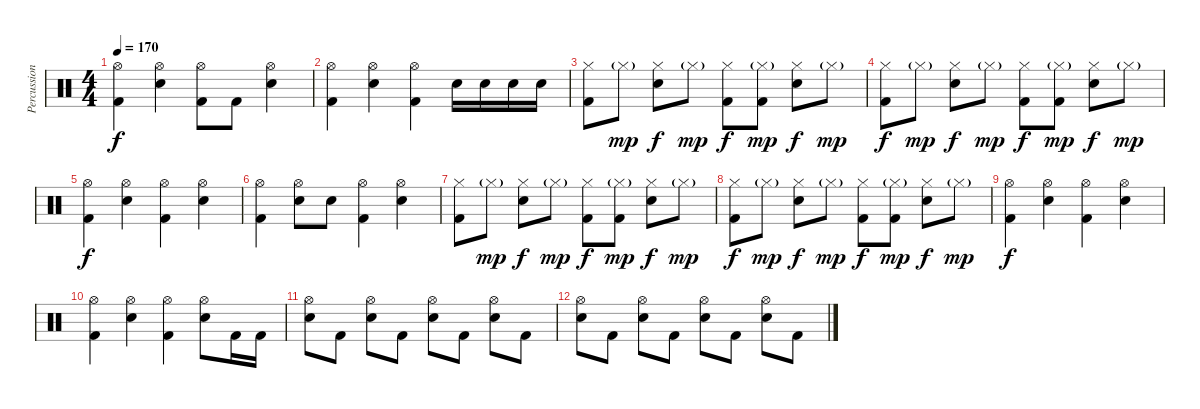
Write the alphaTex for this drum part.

\track ("Percussion" "Percussion") {instrument percussion}
\staff {score}
\articulation defaults
\ts (4 4)
\tempo 170
\clef neutral
\ks c
("Hi-Hat (open)" "Kick (hit) 2").4{dy f} ("Hi-Hat (open)" "Snare (hit) 2").4 ("Hi-Hat (open)" "Kick (hit) 2").8 "Kick (hit) 2".8 ("Hi-Hat (open)" "Snare (hit) 2").4 |
("Hi-Hat (open)" "Kick (hit) 2").4 ("Hi-Hat (open)" "Snare (hit) 2").4 ("Hi-Hat (open)" "Kick (hit) 2").4 "Snare (hit) 2".16 "Snare (hit) 2".16 "Snare (hit) 2".16 "Snare (hit) 2".16 |
("Hi-Hat (closed)" "Kick (hit) 2").8 "Hi-Hat (closed)"{g}.8{dy mp} ("Hi-Hat (closed)" "Snare (hit) 2").8{dy f} "Hi-Hat (closed)"{g}.8{dy mp} ("Hi-Hat (closed)" "Kick (hit) 2").8{dy f} ("Hi-Hat (closed)"{g} "Kick (hit) 2").8{dy mp} ("Hi-Hat (closed)" "Snare (hit) 2").8{dy f} "Hi-Hat (closed)"{g}.8{dy mp} |
("Hi-Hat (closed)" "Kick (hit) 2").8{dy f} "Hi-Hat (closed)"{g}.8{dy mp} ("Hi-Hat (closed)" "Snare (hit) 2").8{dy f} "Hi-Hat (closed)"{g}.8{dy mp} ("Hi-Hat (closed)" "Kick (hit) 2").8{dy f} ("Hi-Hat (closed)"{g} "Kick (hit) 2").8{dy mp} ("Hi-Hat (closed)" "Snare (hit) 2").8{dy f} "Hi-Hat (closed)"{g}.8{dy mp} |
("Hi-Hat (open)" "Kick (hit) 2").4{dy f} ("Hi-Hat (open)" "Snare (hit) 2").4 ("Hi-Hat (open)" "Kick (hit) 2").4 ("Hi-Hat (open)" "Snare (hit) 2").4 |
("Hi-Hat (open)" "Kick (hit) 2").4 ("Hi-Hat (open)" "Snare (hit) 2").8 "Snare (hit) 2".8 ("Hi-Hat (open)" "Kick (hit) 2").4 ("Hi-Hat (open)" "Snare (hit) 2").4 |
("Hi-Hat (closed)" "Kick (hit) 2").8 "Hi-Hat (closed)"{g}.8{dy mp} ("Hi-Hat (closed)" "Snare (hit) 2").8{dy f} "Hi-Hat (closed)"{g}.8{dy mp} ("Hi-Hat (closed)" "Kick (hit) 2").8{dy f} ("Hi-Hat (closed)"{g} "Kick (hit) 2").8{dy mp} ("Hi-Hat (closed)" "Snare (hit) 2").8{dy f} "Hi-Hat (closed)"{g}.8{dy mp} |
("Hi-Hat (closed)" "Kick (hit) 2").8{dy f} "Hi-Hat (closed)"{g}.8{dy mp} ("Hi-Hat (closed)" "Snare (hit) 2").8{dy f} "Hi-Hat (closed)"{g}.8{dy mp} ("Hi-Hat (closed)" "Kick (hit) 2").8{dy f} ("Hi-Hat (closed)"{g} "Kick (hit) 2").8{dy mp} ("Hi-Hat (closed)" "Snare (hit) 2").8{dy f} "Hi-Hat (closed)"{g}.8{dy mp} |
("Hi-Hat (open)" "Kick (hit) 2").4{dy f} ("Hi-Hat (open)" "Snare (hit) 2").4 ("Hi-Hat (open)" "Kick (hit) 2").4 ("Hi-Hat (open)" "Snare (hit) 2").4 |
("Hi-Hat (open)" "Kick (hit) 2").4 ("Hi-Hat (open)" "Snare (hit) 2").4 ("Hi-Hat (open)" "Kick (hit) 2").4 ("Hi-Hat (open)" "Snare (hit) 2").8 "Kick (hit) 2".16 "Kick (hit) 2".16 |
("Hi-Hat (open)" "Snare (hit) 2").8 "Kick (hit) 2".8 ("Hi-Hat (open)" "Snare (hit) 2").8 "Kick (hit) 2".8 ("Hi-Hat (open)" "Snare (hit) 2").8 "Kick (hit) 2".8 ("Hi-Hat (open)" "Snare (hit) 2").8 "Kick (hit) 2".8 |
("Hi-Hat (open)" "Snare (hit) 2").8 "Kick (hit) 2".8 ("Hi-Hat (open)" "Snare (hit) 2").8 "Kick (hit) 2".8 ("Hi-Hat (open)" "Snare (hit) 2").8 "Kick (hit) 2".8 ("Hi-Hat (open)" "Snare (hit) 2").8 "Kick (hit) 2".8
